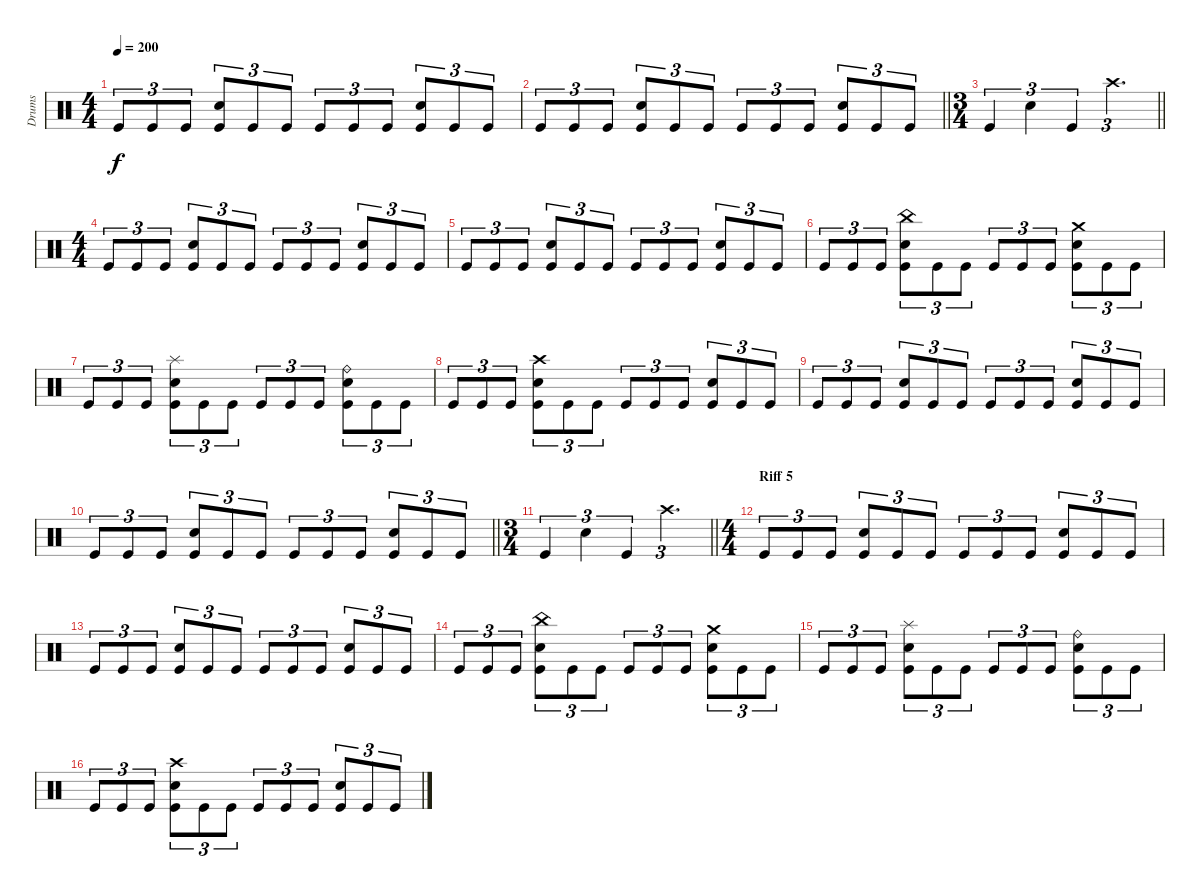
\track ("Drums" "Drums") {instrument percussion}
\staff {score}
\articulation defaults
\ts (4 4)
\tempo 200
\clef neutral
\ks c "Kick (hit)".8{tu (3 2) dy f} "Kick (hit)".8{tu (3 2)} "Kick (hit)".8{tu (3 2)}
("Snare (hit) 2" "Kick (hit)").8{tu (3 2)} "Kick (hit)".8{tu (3 2)} "Kick (hit)".8{tu (3 2)} "Kick (hit)".8{tu (3 2)} "Kick (hit)".8{tu (3 2)} "Kick (hit)".8{tu (3 2)} ("Snare (hit) 2" "Kick (hit)").8{tu (3 2)} "Kick (hit)".8{tu (3 2)} "Kick (hit)".8{tu (3 2)} |
\barLineRight lightlight "Kick (hit)".8{tu (3 2)} "Kick (hit)".8{tu (3 2)} "Kick (hit)".8{tu (3 2)}
("Snare (hit) 2" "Kick (hit)").8{tu (3 2)} "Kick (hit)".8{tu (3 2)} "Kick (hit)".8{tu (3 2)} "Kick (hit)".8{tu (3 2)} "Kick (hit)".8{tu (3 2)} "Kick (hit)".8{tu (3 2)} ("Snare (hit) 2" "Kick (hit)").8{tu (3 2)} "Kick (hit)".8{tu (3 2)} "Kick (hit)".8{tu (3 2)} |
\ts (3 4)
\barLineRight lightlight "Kick (hit)".4{tu (3 2)} "Snare (hit) 2".4{tu (3 2)} "Kick (hit)".4{tu (3 2)} "Crash high (hit)".4{d tu (3 2)}
|
\ts (4 4)
"Kick (hit)".8{tu (3 2)} "Kick (hit)".8{tu (3 2)} "Kick (hit)".8{tu (3 2)} ("Snare (hit) 2" "Kick (hit)").8{tu (3 2)} "Kick (hit)".8{tu (3 2)} "Kick (hit)".8{tu (3 2)} "Kick (hit)".8{tu (3 2)} "Kick (hit)".8{tu (3 2)} "Kick (hit)".8{tu (3 2)} ("Snare (hit) 2" "Kick (hit)").8{tu (3 2)} "Kick (hit)".8{tu (3 2)} "Kick (hit)".8{tu (3 2)} |
"Kick (hit)".8{tu (3 2)} "Kick (hit)".8{tu (3 2)} "Kick (hit)".8{tu (3 2)} ("Snare (hit) 2" "Kick (hit)").8{tu (3 2)} "Kick (hit)".8{tu (3 2)} "Kick (hit)".8{tu (3 2)} "Kick (hit)".8{tu (3 2)} "Kick (hit)".8{tu (3 2)} "Kick (hit)".8{tu (3 2)} ("Snare (hit) 2" "Kick (hit)").8{tu (3 2)} "Kick (hit)".8{tu (3 2)} "Kick (hit)".8{tu (3 2)} |
"Kick (hit)".8{tu (3 2)} "Kick (hit)".8{tu (3 2)} "Kick (hit)".8{tu (3 2)} ("China (hit)" "Snare (hit) 2" "Kick (hit)").8{tu (3 2)} "Kick (hit)".8{tu (3 2)} "Kick (hit)".8{tu (3 2)} "Kick (hit)".8{tu (3 2)} "Kick (hit)".8{tu (3 2)} "Kick (hit)".8{tu (3 2)} ("Crash medium (hit)" "Snare (hit) 2" "Kick (hit)").8{tu (3 2)} "Kick (hit)".8{tu (3 2)} "Kick (hit)".8{tu (3 2)} |
"Kick (hit)".8{tu (3 2)} "Kick (hit)".8{tu (3 2)} "Kick (hit)".8{tu (3 2)} ("Splash (hit)" "Snare (hit) 2" "Kick (hit)").8{tu (3 2)} "Kick (hit)".8{tu (3 2)} "Kick (hit)".8{tu (3 2)} "Kick (hit)".8{tu (3 2)} "Kick (hit)".8{tu (3 2)} "Kick (hit)".8{tu (3 2)} ("Ride (bell)" "Snare (hit) 2" "Kick (hit)").8{tu (3 2)} "Kick (hit)".8{tu (3 2)} "Kick (hit)".8{tu (3 2)} |
"Kick (hit)".8{tu (3 2)} "Kick (hit)".8{tu (3 2)} "Kick (hit)".8{tu (3 2)} ("Crash high (hit)" "Snare (hit) 2" "Kick (hit)").8{tu (3 2)} "Kick (hit)".8{tu (3 2)} "Kick (hit)".8{tu (3 2)} "Kick (hit)".8{tu (3 2)} "Kick (hit)".8{tu (3 2)} "Kick (hit)".8{tu (3 2)} ("Snare (hit) 2" "Kick (hit)").8{tu (3 2)} "Kick (hit)".8{tu (3 2)} "Kick (hit)".8{tu (3 2)} |
"Kick (hit)".8{tu (3 2)} "Kick (hit)".8{tu (3 2)} "Kick (hit)".8{tu (3 2)} ("Snare (hit) 2" "Kick (hit)").8{tu (3 2)} "Kick (hit)".8{tu (3 2)} "Kick (hit)".8{tu (3 2)} "Kick (hit)".8{tu (3 2)} "Kick (hit)".8{tu (3 2)} "Kick (hit)".8{tu (3 2)} ("Snare (hit) 2" "Kick (hit)").8{tu (3 2)} "Kick (hit)".8{tu (3 2)} "Kick (hit)".8{tu (3 2)} |
\barLineRight lightlight "Kick (hit)".8{tu (3 2)} "Kick (hit)".8{tu (3 2)} "Kick (hit)".8{tu (3 2)}
("Snare (hit) 2" "Kick (hit)").8{tu (3 2)} "Kick (hit)".8{tu (3 2)} "Kick (hit)".8{tu (3 2)} "Kick (hit)".8{tu (3 2)} "Kick (hit)".8{tu (3 2)} "Kick (hit)".8{tu (3 2)} ("Snare (hit) 2" "Kick (hit)").8{tu (3 2)} "Kick (hit)".8{tu (3 2)} "Kick (hit)".8{tu (3 2)} |
\ts (3 4)
\section ("" "")
\barLineRight lightlight "Kick (hit)".4{tu (3 2)} "Snare (hit) 2".4{tu (3 2)} "Kick (hit)".4{tu (3 2)} "Crash high (hit)".4{d tu (3 2)}
|
\ts (4 4)
\section ("" "Riff 5")
"Kick (hit)".8{tu (3 2)} "Kick (hit)".8{tu (3 2)} "Kick (hit)".8{tu (3 2)} ("Snare (hit) 2" "Kick (hit)").8{tu (3 2)} "Kick (hit)".8{tu (3 2)} "Kick (hit)".8{tu (3 2)} "Kick (hit)".8{tu (3 2)} "Kick (hit)".8{tu (3 2)} "Kick (hit)".8{tu (3 2)} ("Snare (hit) 2" "Kick (hit)").8{tu (3 2)} "Kick (hit)".8{tu (3 2)} "Kick (hit)".8{tu (3 2)} |
"Kick (hit)".8{tu (3 2)} "Kick (hit)".8{tu (3 2)} "Kick (hit)".8{tu (3 2)} ("Snare (hit) 2" "Kick (hit)").8{tu (3 2)} "Kick (hit)".8{tu (3 2)} "Kick (hit)".8{tu (3 2)} "Kick (hit)".8{tu (3 2)} "Kick (hit)".8{tu (3 2)} "Kick (hit)".8{tu (3 2)} ("Snare (hit) 2" "Kick (hit)").8{tu (3 2)} "Kick (hit)".8{tu (3 2)} "Kick (hit)".8{tu (3 2)} |
"Kick (hit)".8{tu (3 2)} "Kick (hit)".8{tu (3 2)} "Kick (hit)".8{tu (3 2)} ("China (hit)" "Snare (hit) 2" "Kick (hit)").8{tu (3 2)} "Kick (hit)".8{tu (3 2)} "Kick (hit)".8{tu (3 2)} "Kick (hit)".8{tu (3 2)} "Kick (hit)".8{tu (3 2)} "Kick (hit)".8{tu (3 2)} ("Crash medium (hit)" "Snare (hit) 2" "Kick (hit)").8{tu (3 2)} "Kick (hit)".8{tu (3 2)} "Kick (hit)".8{tu (3 2)} |
"Kick (hit)".8{tu (3 2)} "Kick (hit)".8{tu (3 2)} "Kick (hit)".8{tu (3 2)} ("Splash (hit)" "Snare (hit) 2" "Kick (hit)").8{tu (3 2)} "Kick (hit)".8{tu (3 2)} "Kick (hit)".8{tu (3 2)} "Kick (hit)".8{tu (3 2)} "Kick (hit)".8{tu (3 2)} "Kick (hit)".8{tu (3 2)} ("Ride (bell)" "Snare (hit) 2" "Kick (hit)").8{tu (3 2)} "Kick (hit)".8{tu (3 2)} "Kick (hit)".8{tu (3 2)} |
"Kick (hit)".8{tu (3 2)} "Kick (hit)".8{tu (3 2)} "Kick (hit)".8{tu (3 2)} ("Crash high (hit)" "Snare (hit) 2" "Kick (hit)").8{tu (3 2)} "Kick (hit)".8{tu (3 2)} "Kick (hit)".8{tu (3 2)} "Kick (hit)".8{tu (3 2)} "Kick (hit)".8{tu (3 2)} "Kick (hit)".8{tu (3 2)} ("Snare (hit) 2" "Kick (hit)").8{tu (3 2)} "Kick (hit)".8{tu (3 2)} "Kick (hit)".8{tu (3 2)}
